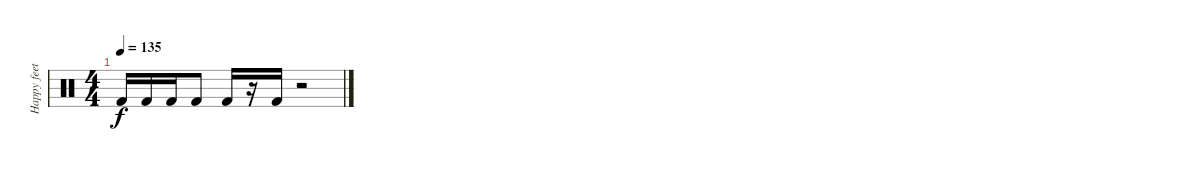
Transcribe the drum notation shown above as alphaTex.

\track ("Happy feet" "Happy feet") {instrument percussion}
\staff {score}
\articulation defaults
\ts (4 4)
\tempo 135
\clef neutral
\ks c "Kick (hit) 2".16{dy f} "Kick (hit) 2".16 "Kick (hit) 2".16 "Kick (hit) 2".8 "Kick (hit) 2".16
r.16 "Kick (hit) 2".16 r.2
